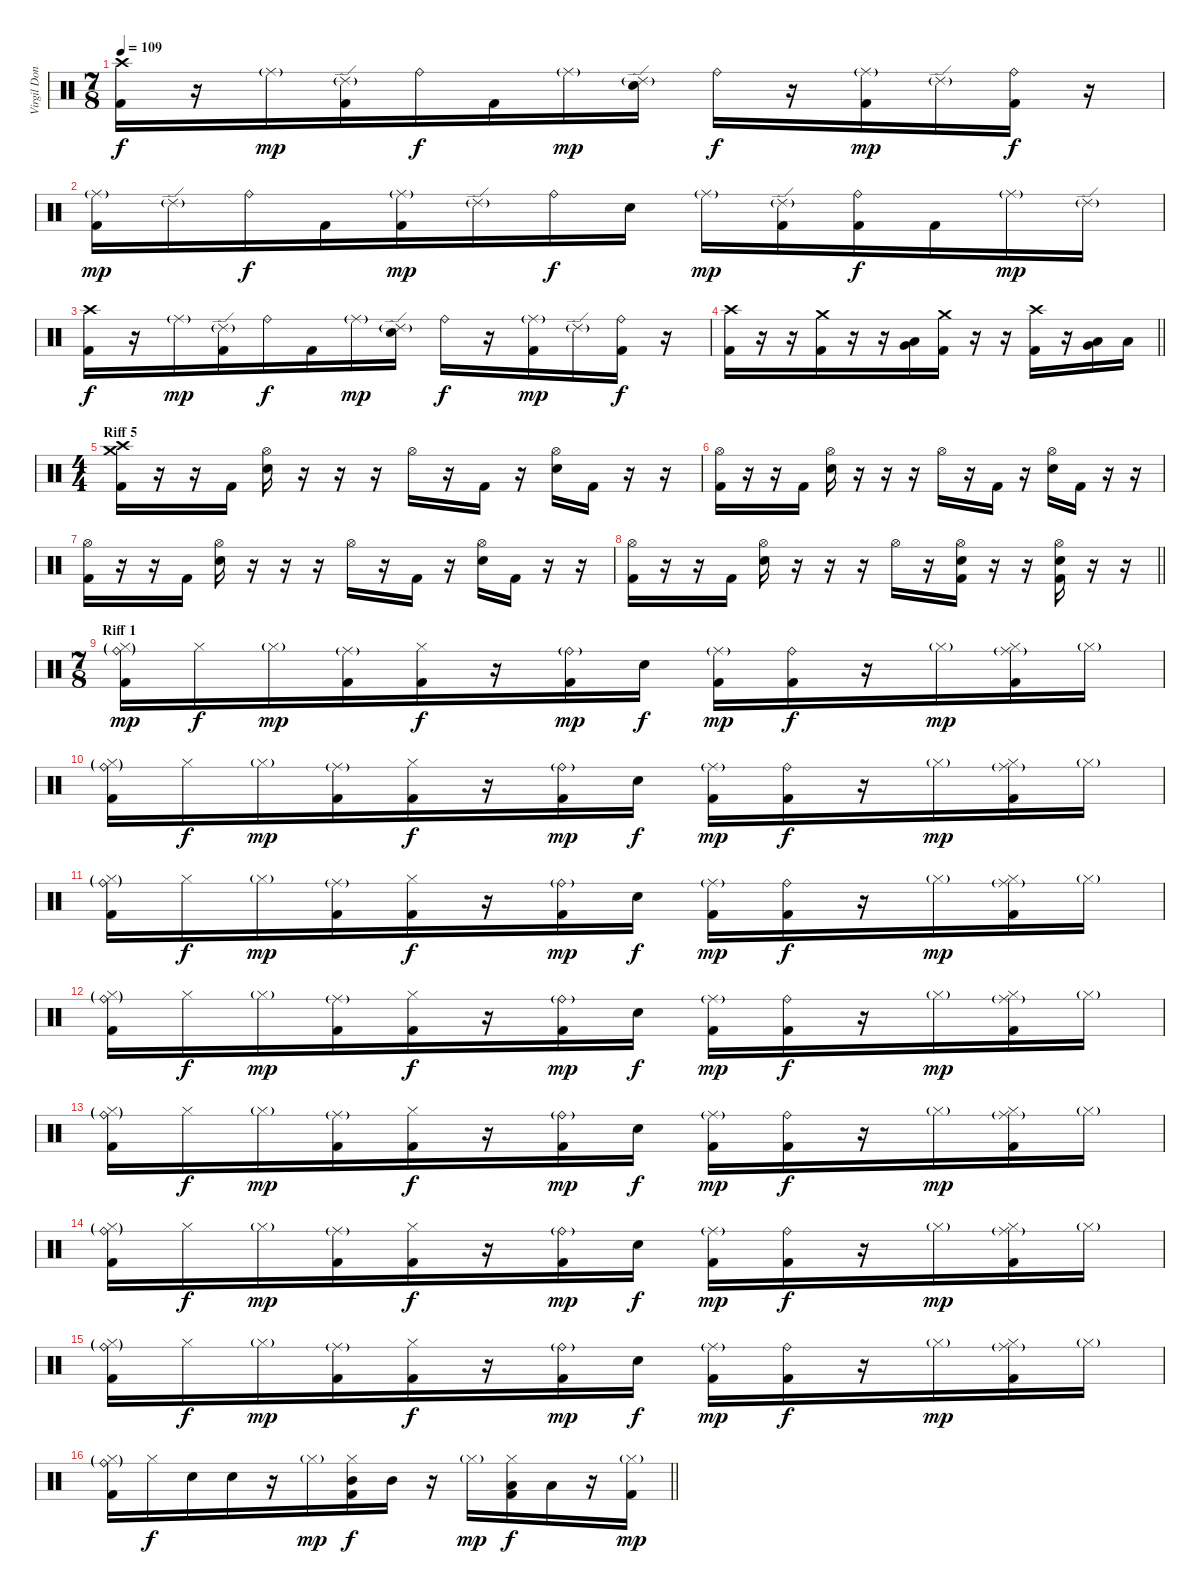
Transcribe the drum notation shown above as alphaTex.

\track ("Virgil Donati" "Virgil Don") {instrument percussion}
\staff {score}
\articulation defaults
\ts (7 8)
\tempo 109
\clef neutral
\ks c
("Crash high (hit)" "Kick (hit) 2").16{dy f} r.16 "Ride (middle)"{g}.16{dy mp} ("Ride (edge) 2"{g} "Kick (hit) 2").16 "Ride (bell)".16{dy f} "Kick (hit) 2".16 "Ride (middle)"{g}.16{dy mp} ("Ride (edge) 2"{g} "Electric Snare (hit)").16 "Ride (bell)".16{dy f} r.16 ("Ride (middle)"{g} "Kick (hit) 2").16{dy mp} "Ride (edge) 2"{g}.16 ("Ride (bell)" "Kick (hit) 2").16{dy f} r.16 |
("Ride (middle)"{g} "Kick (hit) 2").16{dy mp} "Ride (edge) 2"{g}.16 "Ride (bell)".16{dy f} "Kick (hit) 2".16 ("Ride (middle)"{g} "Kick (hit) 2").16{dy mp} "Ride (edge) 2"{g}.16 "Ride (bell)".16{dy f} "Electric Snare (hit)".16 "Ride (middle)"{g}.16{dy mp} ("Ride (edge) 2"{g} "Kick (hit) 2").16 ("Ride (bell)" "Kick (hit) 2").16{dy f} "Kick (hit) 2".16 "Ride (middle)"{g}.16{dy mp} "Ride (edge) 2"{g}.16 |
("Crash high (hit)" "Kick (hit) 2").16{dy f} r.16 "Ride (middle)"{g}.16{dy mp} ("Ride (edge) 2"{g} "Kick (hit) 2").16 "Ride (bell)".16{dy f} "Kick (hit) 2".16 "Ride (middle)"{g}.16{dy mp} ("Ride (edge) 2"{g} "Electric Snare (hit)").16 "Ride (bell)".16{dy f} r.16 ("Ride (middle)"{g} "Kick (hit) 2").16{dy mp} "Ride (edge) 2"{g}.16 ("Ride (bell)" "Kick (hit) 2").16{dy f} r.16 |
\barLineRight lightlight
("Crash high (hit)" "Kick (hit) 2").16 r.16 r.16 ("Crash medium (hit)" "Kick (hit) 2").16 r.16 r.16 ("Very Low Tom (hit)" "Low Floor Tom (hit)").16 ("Crash medium (hit)" "Kick (hit) 2").16 r.16 r.16 ("Crash high (hit)" "Kick (hit) 2").16 r.16 ("Very Low Tom (hit)" "Low Floor Tom (hit)").16 "Low Floor Tom (hit)".16 |
\ts (4 4)
\section ("" "Riff 5")
("Crash medium (hit)" "Crash high (hit)" "Kick (hit) 2").16 r.16 r.16 "Kick (hit) 2".16 ("Hi-Hat (open)" "Electric Snare (hit)").16 r.16 r.16 r.16 "Hi-Hat (open)".16 r.16 "Kick (hit) 2".16 r.16 ("Hi-Hat (open)" "Electric Snare (hit)").16 "Kick (hit) 2".16 r.16 r.16 |
("Hi-Hat (open)" "Kick (hit) 2").16 r.16 r.16 "Kick (hit) 2".16 ("Hi-Hat (open)" "Electric Snare (hit)").16 r.16 r.16 r.16 "Hi-Hat (open)".16 r.16 "Kick (hit) 2".16 r.16 ("Hi-Hat (open)" "Electric Snare (hit)").16 "Kick (hit) 2".16 r.16 r.16 |
("Hi-Hat (open)" "Kick (hit) 2").16 r.16 r.16 "Kick (hit) 2".16 ("Hi-Hat (open)" "Electric Snare (hit)").16 r.16 r.16 r.16 "Hi-Hat (open)".16 r.16 "Kick (hit) 2".16 r.16 ("Hi-Hat (open)" "Electric Snare (hit)").16 "Kick (hit) 2".16 r.16 r.16 |
\barLineRight lightlight
("Hi-Hat (open)" "Kick (hit) 2").16 r.16 r.16 "Kick (hit) 2".16 ("Hi-Hat (open)" "Electric Snare (hit)").16 r.16 r.16 r.16 "Hi-Hat (open)".16 r.16 ("Hi-Hat (open)" "Electric Snare (hit)" "Kick (hit) 2").16 r.16 r.16 ("Hi-Hat (open)" "Electric Snare (hit)" "Kick (hit) 2").16 r.16 r.16 |
\ts (7 8)
\section ("" "Riff 1")
("Ride (bell)"{g} "Hi-Hat (closed)"{g} "Kick (hit) 2").16{dy mp} "Hi-Hat (closed)".16{dy f} "Hi-Hat (closed)"{g}.16{dy mp} ("Ride (middle)"{g} "Kick (hit) 2").16 ("Hi-Hat (closed)" "Kick (hit) 2").16{dy f} r.16 ("Ride (bell)"{g} "Kick (hit) 2").16{dy mp} "Electric Snare (hit)".16{dy f} ("Ride (middle)"{g} "Kick (hit) 2").16{dy mp} ("Ride (bell)" "Kick (hit) 2").16{dy f} r.16 "Hi-Hat (closed)"{g}.16{dy mp} ("Ride (middle)"{g} "Hi-Hat (closed)" "Kick (hit) 2").16 "Hi-Hat (closed)"{g}.16 |
("Ride (bell)"{g} "Hi-Hat (closed)"{g} "Kick (hit) 2").16 "Hi-Hat (closed)".16{dy f} "Hi-Hat (closed)"{g}.16{dy mp} ("Ride (middle)"{g} "Kick (hit) 2").16 ("Hi-Hat (closed)" "Kick (hit) 2").16{dy f} r.16 ("Ride (bell)"{g} "Kick (hit) 2").16{dy mp} "Electric Snare (hit)".16{dy f} ("Ride (middle)"{g} "Kick (hit) 2").16{dy mp} ("Ride (bell)" "Kick (hit) 2").16{dy f} r.16 "Hi-Hat (closed)"{g}.16{dy mp} ("Ride (middle)"{g} "Hi-Hat (closed)" "Kick (hit) 2").16 "Hi-Hat (closed)"{g}.16 |
("Ride (bell)"{g} "Hi-Hat (closed)"{g} "Kick (hit) 2").16 "Hi-Hat (closed)".16{dy f} "Hi-Hat (closed)"{g}.16{dy mp} ("Ride (middle)"{g} "Kick (hit) 2").16 ("Hi-Hat (closed)" "Kick (hit) 2").16{dy f} r.16 ("Ride (bell)"{g} "Kick (hit) 2").16{dy mp} "Electric Snare (hit)".16{dy f} ("Ride (middle)"{g} "Kick (hit) 2").16{dy mp} ("Ride (bell)" "Kick (hit) 2").16{dy f} r.16 "Hi-Hat (closed)"{g}.16{dy mp} ("Ride (middle)"{g} "Hi-Hat (closed)" "Kick (hit) 2").16 "Hi-Hat (closed)"{g}.16 |
("Ride (bell)"{g} "Hi-Hat (closed)"{g} "Kick (hit) 2").16 "Hi-Hat (closed)".16{dy f} "Hi-Hat (closed)"{g}.16{dy mp} ("Ride (middle)"{g} "Kick (hit) 2").16 ("Hi-Hat (closed)" "Kick (hit) 2").16{dy f} r.16 ("Ride (bell)"{g} "Kick (hit) 2").16{dy mp} "Electric Snare (hit)".16{dy f} ("Ride (middle)"{g} "Kick (hit) 2").16{dy mp} ("Ride (bell)" "Kick (hit) 2").16{dy f} r.16 "Hi-Hat (closed)"{g}.16{dy mp} ("Ride (middle)"{g} "Hi-Hat (closed)" "Kick (hit) 2").16 "Hi-Hat (closed)"{g}.16 |
("Ride (bell)"{g} "Hi-Hat (closed)"{g} "Kick (hit) 2").16 "Hi-Hat (closed)".16{dy f} "Hi-Hat (closed)"{g}.16{dy mp} ("Ride (middle)"{g} "Kick (hit) 2").16 ("Hi-Hat (closed)" "Kick (hit) 2").16{dy f} r.16 ("Ride (bell)"{g} "Kick (hit) 2").16{dy mp} "Electric Snare (hit)".16{dy f} ("Ride (middle)"{g} "Kick (hit) 2").16{dy mp} ("Ride (bell)" "Kick (hit) 2").16{dy f} r.16 "Hi-Hat (closed)"{g}.16{dy mp} ("Ride (middle)"{g} "Hi-Hat (closed)" "Kick (hit) 2").16 "Hi-Hat (closed)"{g}.16 |
("Ride (bell)"{g} "Hi-Hat (closed)"{g} "Kick (hit) 2").16 "Hi-Hat (closed)".16{dy f} "Hi-Hat (closed)"{g}.16{dy mp} ("Ride (middle)"{g} "Kick (hit) 2").16 ("Hi-Hat (closed)" "Kick (hit) 2").16{dy f} r.16 ("Ride (bell)"{g} "Kick (hit) 2").16{dy mp} "Electric Snare (hit)".16{dy f} ("Ride (middle)"{g} "Kick (hit) 2").16{dy mp} ("Ride (bell)" "Kick (hit) 2").16{dy f} r.16 "Hi-Hat (closed)"{g}.16{dy mp} ("Ride (middle)"{g} "Hi-Hat (closed)" "Kick (hit) 2").16 "Hi-Hat (closed)"{g}.16 |
("Ride (bell)"{g} "Hi-Hat (closed)"{g} "Kick (hit) 2").16 "Hi-Hat (closed)".16{dy f} "Hi-Hat (closed)"{g}.16{dy mp} ("Ride (middle)"{g} "Kick (hit) 2").16 ("Hi-Hat (closed)" "Kick (hit) 2").16{dy f} r.16 ("Ride (bell)"{g} "Kick (hit) 2").16{dy mp} "Electric Snare (hit)".16{dy f} ("Ride (middle)"{g} "Kick (hit) 2").16{dy mp} ("Ride (bell)" "Kick (hit) 2").16{dy f} r.16 "Hi-Hat (closed)"{g}.16{dy mp} ("Ride (middle)"{g} "Hi-Hat (closed)" "Kick (hit) 2").16 "Hi-Hat (closed)"{g}.16 |
\barLineRight lightlight
("Ride (bell)"{g} "Hi-Hat (closed)"{g} "Kick (hit) 2").16 "Hi-Hat (closed)".16{dy f} "Electric Snare (hit)".16 "Electric Snare (hit)".16 r.16 "Hi-Hat (closed)"{g}.16{dy mp} ("Hi-Hat (closed)" "Mid Tom (hit)" "Kick (hit) 2").16{dy f} "Mid Tom (hit)".16 r.16 "Hi-Hat (closed)"{g}.16{dy mp} ("Hi-Hat (closed)" "Low Tom (hit)" "Kick (hit) 2").16{dy f} "Low Tom (hit)".16 r.16 ("Hi-Hat (closed)"{g} "Kick (hit) 2").16{dy mp}
